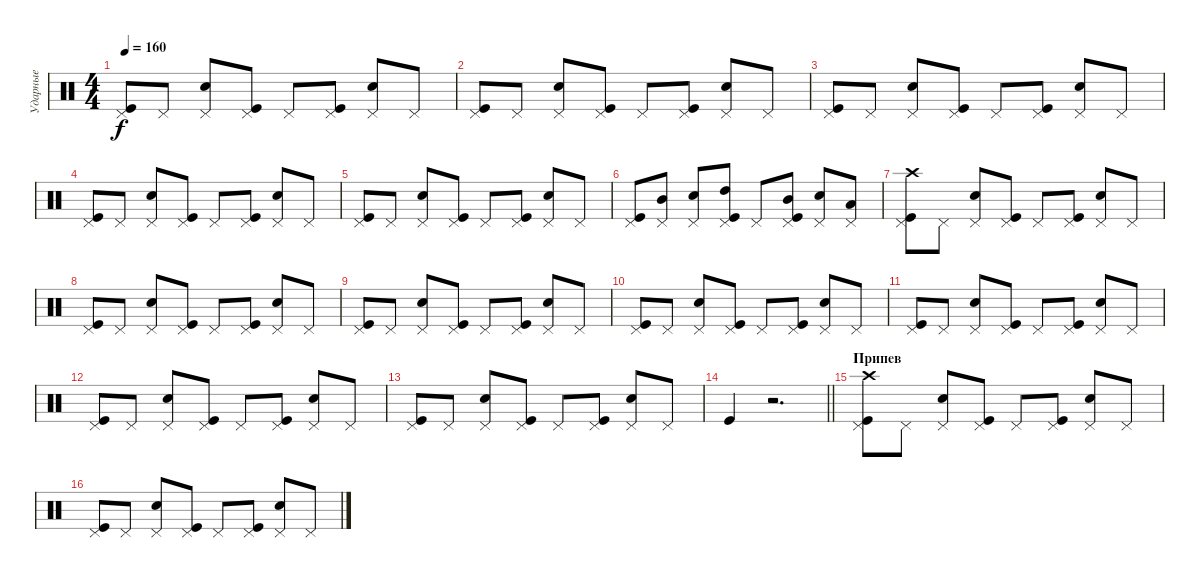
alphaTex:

\track ("Ударные" "Ударные") {instrument percussion}
\staff {score}
\articulation defaults
\ts (4 4)
\tempo 160
\clef neutral
\ks c
("Pedal Hi-Hat (hit)" "Kick (hit)").8{dy f} "Pedal Hi-Hat (hit)".8 ("Pedal Hi-Hat (hit)" "Snare (hit) 2").8 ("Pedal Hi-Hat (hit)" "Kick (hit)").8 "Pedal Hi-Hat (hit)".8 ("Pedal Hi-Hat (hit)" "Kick (hit)").8 ("Pedal Hi-Hat (hit)" "Snare (hit) 2").8 "Pedal Hi-Hat (hit)".8 |
("Pedal Hi-Hat (hit)" "Kick (hit)").8 "Pedal Hi-Hat (hit)".8 ("Pedal Hi-Hat (hit)" "Snare (hit) 2").8 ("Pedal Hi-Hat (hit)" "Kick (hit)").8 "Pedal Hi-Hat (hit)".8 ("Pedal Hi-Hat (hit)" "Kick (hit)").8 ("Pedal Hi-Hat (hit)" "Snare (hit) 2").8 "Pedal Hi-Hat (hit)".8 |
("Pedal Hi-Hat (hit)" "Kick (hit)").8 "Pedal Hi-Hat (hit)".8 ("Pedal Hi-Hat (hit)" "Snare (hit) 2").8 ("Pedal Hi-Hat (hit)" "Kick (hit)").8 "Pedal Hi-Hat (hit)".8 ("Pedal Hi-Hat (hit)" "Kick (hit)").8 ("Pedal Hi-Hat (hit)" "Snare (hit) 2").8 "Pedal Hi-Hat (hit)".8 |
("Pedal Hi-Hat (hit)" "Kick (hit)").8 "Pedal Hi-Hat (hit)".8 ("Pedal Hi-Hat (hit)" "Snare (hit) 2").8 ("Pedal Hi-Hat (hit)" "Kick (hit)").8 "Pedal Hi-Hat (hit)".8 ("Pedal Hi-Hat (hit)" "Kick (hit)").8 ("Pedal Hi-Hat (hit)" "Snare (hit) 2").8 "Pedal Hi-Hat (hit)".8 |
("Pedal Hi-Hat (hit)" "Kick (hit)").8 "Pedal Hi-Hat (hit)".8 ("Pedal Hi-Hat (hit)" "Snare (hit) 2").8 ("Pedal Hi-Hat (hit)" "Kick (hit)").8 "Pedal Hi-Hat (hit)".8 ("Pedal Hi-Hat (hit)" "Kick (hit)").8 ("Pedal Hi-Hat (hit)" "Snare (hit) 2").8 "Pedal Hi-Hat (hit)".8 |
("Pedal Hi-Hat (hit)" "Kick (hit)").8 ("Pedal Hi-Hat (hit)" "Mid Tom (hit)").8 ("Pedal Hi-Hat (hit)" "Snare (hit) 2").8 ("Pedal Hi-Hat (hit)" "High Tom (hit)" "Kick (hit)").8 "Pedal Hi-Hat (hit)".8 ("Pedal Hi-Hat (hit)" "Mid Tom (hit)" "Kick (hit)").8 ("Pedal Hi-Hat (hit)" "Snare (hit) 2").8 ("Pedal Hi-Hat (hit)" "Low Tom (hit)").8 |
("Pedal Hi-Hat (hit)" "Crash high (hit)" "Kick (hit)").8 "Pedal Hi-Hat (hit)".8 ("Pedal Hi-Hat (hit)" "Snare (hit) 2").8 ("Pedal Hi-Hat (hit)" "Kick (hit)").8 "Pedal Hi-Hat (hit)".8 ("Pedal Hi-Hat (hit)" "Kick (hit)").8 ("Pedal Hi-Hat (hit)" "Snare (hit) 2").8 "Pedal Hi-Hat (hit)".8 |
("Pedal Hi-Hat (hit)" "Kick (hit)").8 "Pedal Hi-Hat (hit)".8 ("Pedal Hi-Hat (hit)" "Snare (hit) 2").8 ("Pedal Hi-Hat (hit)" "Kick (hit)").8 "Pedal Hi-Hat (hit)".8 ("Pedal Hi-Hat (hit)" "Kick (hit)").8 ("Pedal Hi-Hat (hit)" "Snare (hit) 2").8 "Pedal Hi-Hat (hit)".8 |
("Pedal Hi-Hat (hit)" "Kick (hit)").8 "Pedal Hi-Hat (hit)".8 ("Pedal Hi-Hat (hit)" "Snare (hit) 2").8 ("Pedal Hi-Hat (hit)" "Kick (hit)").8 "Pedal Hi-Hat (hit)".8 ("Pedal Hi-Hat (hit)" "Kick (hit)").8 ("Pedal Hi-Hat (hit)" "Snare (hit) 2").8 "Pedal Hi-Hat (hit)".8 |
("Pedal Hi-Hat (hit)" "Kick (hit)").8 "Pedal Hi-Hat (hit)".8 ("Pedal Hi-Hat (hit)" "Snare (hit) 2").8 ("Pedal Hi-Hat (hit)" "Kick (hit)").8 "Pedal Hi-Hat (hit)".8 ("Pedal Hi-Hat (hit)" "Kick (hit)").8 ("Pedal Hi-Hat (hit)" "Snare (hit) 2").8 "Pedal Hi-Hat (hit)".8 |
("Pedal Hi-Hat (hit)" "Kick (hit)").8 "Pedal Hi-Hat (hit)".8 ("Pedal Hi-Hat (hit)" "Snare (hit) 2").8 ("Pedal Hi-Hat (hit)" "Kick (hit)").8 "Pedal Hi-Hat (hit)".8 ("Pedal Hi-Hat (hit)" "Kick (hit)").8 ("Pedal Hi-Hat (hit)" "Snare (hit) 2").8 "Pedal Hi-Hat (hit)".8 |
("Pedal Hi-Hat (hit)" "Kick (hit)").8 "Pedal Hi-Hat (hit)".8 ("Pedal Hi-Hat (hit)" "Snare (hit) 2").8 ("Pedal Hi-Hat (hit)" "Kick (hit)").8 "Pedal Hi-Hat (hit)".8 ("Pedal Hi-Hat (hit)" "Kick (hit)").8 ("Pedal Hi-Hat (hit)" "Snare (hit) 2").8 "Pedal Hi-Hat (hit)".8 |
("Pedal Hi-Hat (hit)" "Kick (hit)").8 "Pedal Hi-Hat (hit)".8 ("Pedal Hi-Hat (hit)" "Snare (hit) 2").8 ("Pedal Hi-Hat (hit)" "Kick (hit)").8 "Pedal Hi-Hat (hit)".8 ("Pedal Hi-Hat (hit)" "Kick (hit)").8 ("Pedal Hi-Hat (hit)" "Snare (hit) 2").8 "Pedal Hi-Hat (hit)".8 |
\barLineRight lightlight "Kick (hit)".4
r.2{d} |
\section ("" "Припев")
("Pedal Hi-Hat (hit)" "Crash high (hit)" "Kick (hit)").8 "Pedal Hi-Hat (hit)".8 ("Pedal Hi-Hat (hit)" "Snare (hit) 2").8 ("Pedal Hi-Hat (hit)" "Kick (hit)").8 "Pedal Hi-Hat (hit)".8 ("Pedal Hi-Hat (hit)" "Kick (hit)").8 ("Pedal Hi-Hat (hit)" "Snare (hit) 2").8 "Pedal Hi-Hat (hit)".8 |
("Pedal Hi-Hat (hit)" "Kick (hit)").8 "Pedal Hi-Hat (hit)".8 ("Pedal Hi-Hat (hit)" "Snare (hit) 2").8 ("Pedal Hi-Hat (hit)" "Kick (hit)").8 "Pedal Hi-Hat (hit)".8 ("Pedal Hi-Hat (hit)" "Kick (hit)").8 ("Pedal Hi-Hat (hit)" "Snare (hit) 2").8 "Pedal Hi-Hat (hit)".8
